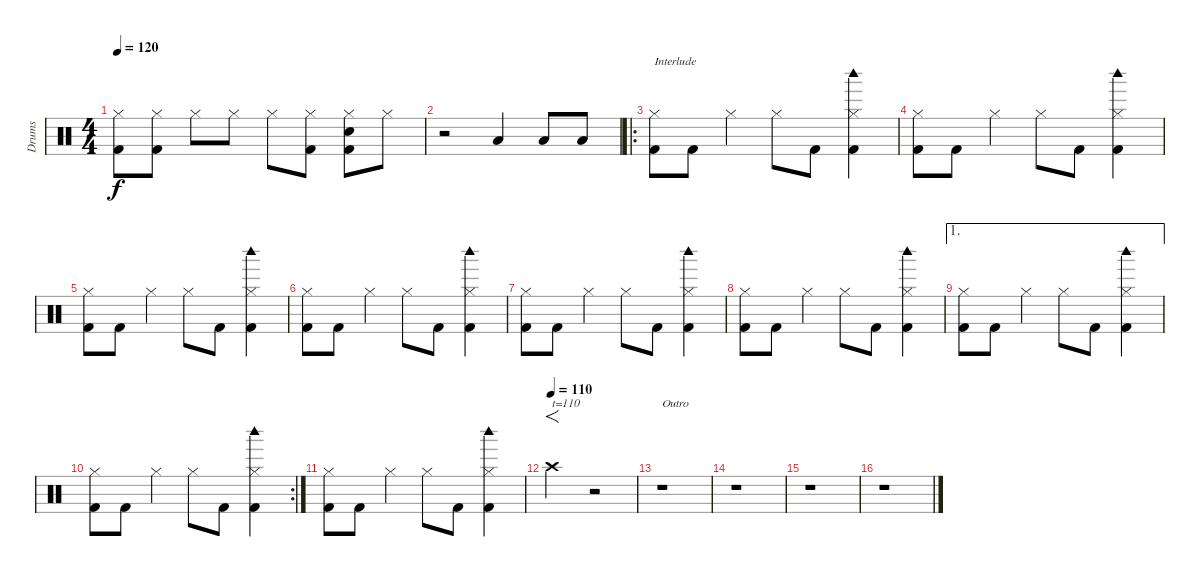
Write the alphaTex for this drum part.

\track ("Drums" "Drums") {instrument percussion}
\staff {score}
\articulation defaults
\ts (4 4)
\tempo 120
\clef neutral
\ks c
("Hi-Hat (closed)" "Kick (hit) 2").8{dy f} ("Hi-Hat (closed)" "Kick (hit) 2").8 "Hi-Hat (closed)".8 "Hi-Hat (closed)".8 "Hi-Hat (closed)".8 ("Hi-Hat (closed)" "Kick (hit) 2").8 ("Hi-Hat (closed)" "Snare (hit) 2" "Kick (hit) 2").8 "Hi-Hat (closed)".8 |
r.2 "Low Tom (hit)".4 "Low Tom (hit)".8 "Low Tom (hit)".8 |
\ro
("Hi-Hat (closed)" "Kick (hit) 2").8{txt "Interlude"} "Kick (hit) 2".8 "Hi-Hat (closed)".4 "Hi-Hat (closed)".8 "Kick (hit) 2".8 ("Hi-Hat (closed)" "Woodblock high (hit)" "Kick (hit) 2").4 |
("Hi-Hat (closed)" "Kick (hit) 2").8 "Kick (hit) 2".8 "Hi-Hat (closed)".4 "Hi-Hat (closed)".8 "Kick (hit) 2".8 ("Hi-Hat (closed)" "Woodblock high (hit)" "Kick (hit) 2").4 |
("Hi-Hat (closed)" "Kick (hit) 2").8 "Kick (hit) 2".8 "Hi-Hat (closed)".4 "Hi-Hat (closed)".8 "Kick (hit) 2".8 ("Hi-Hat (closed)" "Woodblock high (hit)" "Kick (hit) 2").4 |
("Hi-Hat (closed)" "Kick (hit) 2").8 "Kick (hit) 2".8 "Hi-Hat (closed)".4 "Hi-Hat (closed)".8 "Kick (hit) 2".8 ("Hi-Hat (closed)" "Woodblock high (hit)" "Kick (hit) 2").4 |
("Hi-Hat (closed)" "Kick (hit) 2").8 "Kick (hit) 2".8 "Hi-Hat (closed)".4 "Hi-Hat (closed)".8 "Kick (hit) 2".8 ("Hi-Hat (closed)" "Woodblock high (hit)" "Kick (hit) 2").4 |
("Hi-Hat (closed)" "Kick (hit) 2").8 "Kick (hit) 2".8 "Hi-Hat (closed)".4 "Hi-Hat (closed)".8 "Kick (hit) 2".8 ("Hi-Hat (closed)" "Woodblock high (hit)" "Kick (hit) 2").4 |
\ae 1
("Hi-Hat (closed)" "Kick (hit) 2").8 "Kick (hit) 2".8 "Hi-Hat (closed)".4 "Hi-Hat (closed)".8 "Kick (hit) 2".8 ("Hi-Hat (closed)" "Woodblock high (hit)" "Kick (hit) 2").4 |
\rc 2
("Hi-Hat (closed)" "Kick (hit) 2").8 "Kick (hit) 2".8 "Hi-Hat (closed)".4 "Hi-Hat (closed)".8 "Kick (hit) 2".8 ("Hi-Hat (closed)" "Woodblock high (hit)" "Kick (hit) 2").4 |
("Hi-Hat (closed)" "Kick (hit) 2").8 "Kick (hit) 2".8 "Hi-Hat (closed)".4 "Hi-Hat (closed)".8 "Kick (hit) 2".8 ("Hi-Hat (closed)" "Woodblock high (hit)" "Kick (hit) 2").4 |
\tempo (110)
"Crash high (hit)".2{f txt "t=110"} r.2 |
r.1{txt "Outro"} |
r.1 |
r.1 |
r.1
